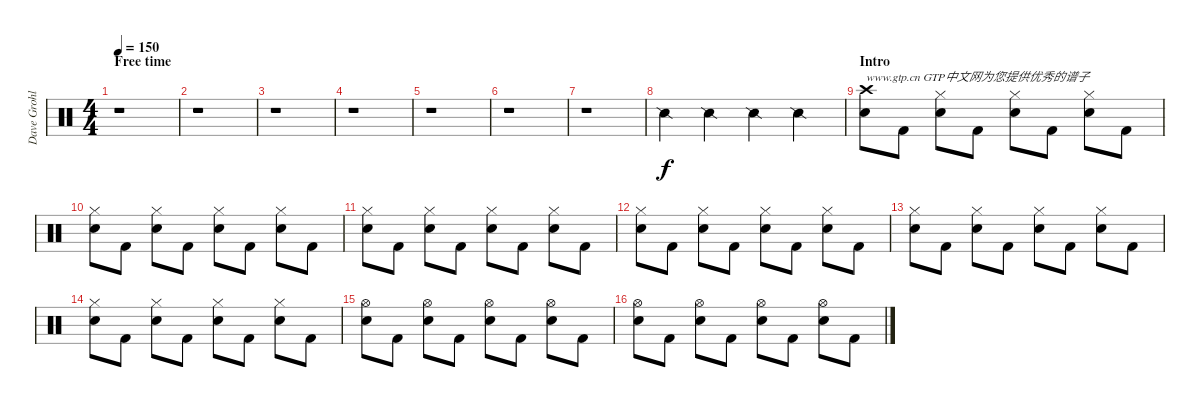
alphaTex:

\track ("Dave Grohl" "Dave Grohl") {instrument percussion}
\staff {score}
\articulation defaults
\ts (4 4)
\section ("" "Free time")
\tempo 150
\clef neutral
\ks c
r.1{dy f} |
r.1 |
r.1 |
r.1 |
r.1 |
r.1 |
r.1 |
"Snare (side stick) 2".4 "Snare (side stick) 2".4 "Snare (side stick) 2".4 "Snare (side stick) 2".4 |
\section ("" "Intro")
("Crash high (hit)" "Electric Snare (hit)").8{txt "www.gtp.cn GTP中文网为您提供优秀的谱子"} "Kick (hit) 2".8 ("Hi-Hat (closed)" "Electric Snare (hit)").8 "Kick (hit) 2".8 ("Hi-Hat (closed)" "Electric Snare (hit)").8 "Kick (hit) 2".8 ("Hi-Hat (closed)" "Electric Snare (hit)").8 "Kick (hit) 2".8 |
("Hi-Hat (closed)" "Electric Snare (hit)").8 "Kick (hit) 2".8 ("Hi-Hat (closed)" "Electric Snare (hit)").8 "Kick (hit) 2".8 ("Hi-Hat (closed)" "Electric Snare (hit)").8 "Kick (hit) 2".8 ("Hi-Hat (closed)" "Electric Snare (hit)").8 "Kick (hit) 2".8 |
("Hi-Hat (closed)" "Electric Snare (hit)").8 "Kick (hit) 2".8 ("Hi-Hat (closed)" "Electric Snare (hit)").8 "Kick (hit) 2".8 ("Hi-Hat (closed)" "Electric Snare (hit)").8 "Kick (hit) 2".8 ("Hi-Hat (closed)" "Electric Snare (hit)").8 "Kick (hit) 2".8 |
("Hi-Hat (closed)" "Electric Snare (hit)").8 "Kick (hit) 2".8 ("Hi-Hat (closed)" "Electric Snare (hit)").8 "Kick (hit) 2".8 ("Hi-Hat (closed)" "Electric Snare (hit)").8 "Kick (hit) 2".8 ("Hi-Hat (closed)" "Electric Snare (hit)").8 "Kick (hit) 2".8 |
("Hi-Hat (closed)" "Electric Snare (hit)").8 "Kick (hit) 2".8 ("Hi-Hat (closed)" "Electric Snare (hit)").8 "Kick (hit) 2".8 ("Hi-Hat (closed)" "Electric Snare (hit)").8 "Kick (hit) 2".8 ("Hi-Hat (closed)" "Electric Snare (hit)").8 "Kick (hit) 2".8 |
("Hi-Hat (closed)" "Electric Snare (hit)").8 "Kick (hit) 2".8 ("Hi-Hat (closed)" "Electric Snare (hit)").8 "Kick (hit) 2".8 ("Hi-Hat (closed)" "Electric Snare (hit)").8 "Kick (hit) 2".8 ("Hi-Hat (closed)" "Electric Snare (hit)").8 "Kick (hit) 2".8 |
("Hi-Hat (open)" "Electric Snare (hit)").8 "Kick (hit) 2".8 ("Hi-Hat (open)" "Electric Snare (hit)").8 "Kick (hit) 2".8 ("Hi-Hat (open)" "Electric Snare (hit)").8 "Kick (hit) 2".8 ("Hi-Hat (open)" "Electric Snare (hit)").8 "Kick (hit) 2".8 |
("Hi-Hat (open)" "Electric Snare (hit)").8 "Kick (hit) 2".8 ("Hi-Hat (open)" "Electric Snare (hit)").8 "Kick (hit) 2".8 ("Hi-Hat (open)" "Electric Snare (hit)").8 "Kick (hit) 2".8 ("Hi-Hat (open)" "Electric Snare (hit)").8 "Kick (hit) 2".8
